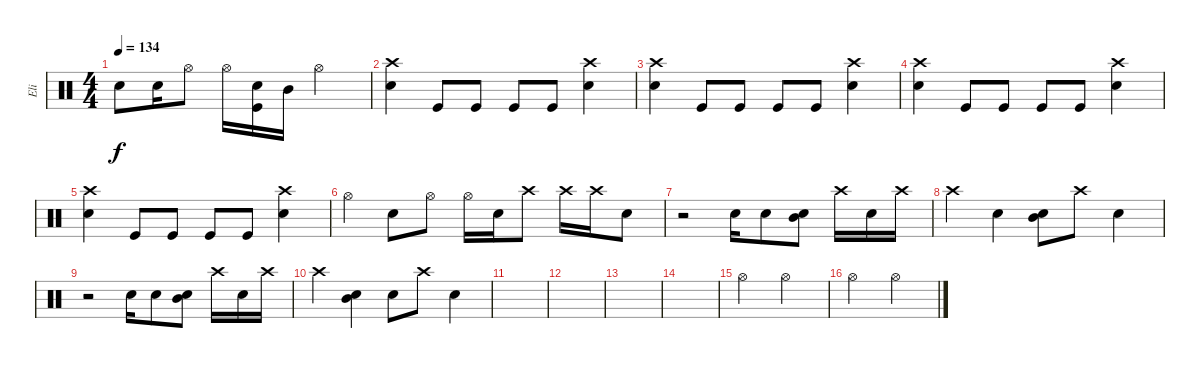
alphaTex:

\track ("Eli" "Eli") {instrument percussion}
\staff {score}
\articulation defaults
\ts (4 4)
\tempo 134
\clef neutral
\ks c "Electric Snare (hit)".8{dy f} "Electric Snare (hit)".16 "Hi-Hat (open)".8 "Hi-Hat (open)".16
("Electric Snare (hit)" "Kick (hit)").16 "Mid Tom (hit)".16 "Hi-Hat (open)".2 |
("Electric Snare (hit)" "Crash high (hit)").4 "Kick (hit)".8 "Kick (hit)".8 "Kick (hit)".8 "Kick (hit)".8 ("Electric Snare (hit)" "Crash high (hit)").4 |
("Electric Snare (hit)" "Crash high (hit)").4 "Kick (hit)".8 "Kick (hit)".8 "Kick (hit)".8 "Kick (hit)".8 ("Electric Snare (hit)" "Crash high (hit)").4 |
("Electric Snare (hit)" "Crash high (hit)").4 "Kick (hit)".8 "Kick (hit)".8 "Kick (hit)".8 "Kick (hit)".8 ("Electric Snare (hit)" "Crash high (hit)").4 |
("Electric Snare (hit)" "Crash high (hit)").4 "Kick (hit)".8 "Kick (hit)".8 "Kick (hit)".8 "Kick (hit)".8 ("Electric Snare (hit)" "Crash high (hit)").4 |
"Hi-Hat (open)".4 "Electric Snare (hit)".8 "Hi-Hat (open)".8 "Hi-Hat (open)".16 "Electric Snare (hit)".16 "Crash high (hit)".8 "Crash high (hit)".16 "Crash high (hit)".16 "Electric Snare (hit)".8 |
r.2 "Electric Snare (hit)".16 "Electric Snare (hit)".8 ("Mid Tom (hit)" "Electric Snare (hit)").8 "Crash high (hit)".16 "Electric Snare (hit)".16 "Crash high (hit)".16 |
"Crash high (hit)".4 "Electric Snare (hit)".4 ("Mid Tom (hit)" "Electric Snare (hit)").8 "Crash high (hit)".8 "Electric Snare (hit)".4 |
r.2 "Electric Snare (hit)".16 "Electric Snare (hit)".8 ("Mid Tom (hit)" "Electric Snare (hit)").8 "Crash high (hit)".16 "Electric Snare (hit)".16 "Crash high (hit)".16 |
"Crash high (hit)".4 ("Mid Tom (hit)" "Electric Snare (hit)").4 "Electric Snare (hit)".8 "Crash high (hit)".8 "Electric Snare (hit)".4 |
|
|
|
|
"Hi-Hat (open)".2 "Hi-Hat (open)".2 |
"Hi-Hat (open)".2 "Hi-Hat (open)".2
